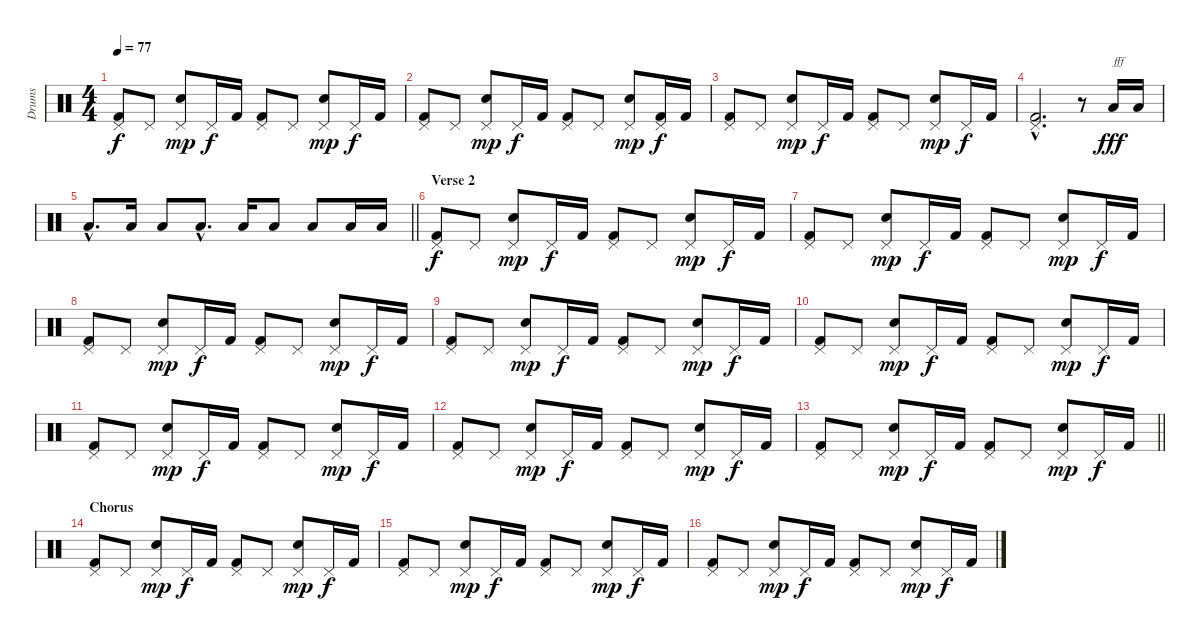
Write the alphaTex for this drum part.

\track ("Drums" "Drums") {instrument percussion}
\staff {score}
\articulation defaults
\ts (4 4)
\tempo 77
\clef neutral
\ks c
("Pedal Hi-Hat (hit)" "Kick (hit) 2").8{dy f} "Pedal Hi-Hat (hit)".8 ("Pedal Hi-Hat (hit)" "Snare (hit) 2").8{dy mp} "Pedal Hi-Hat (hit)".16{dy f} "Kick (hit) 2".16 ("Pedal Hi-Hat (hit)" "Kick (hit) 2").8 "Pedal Hi-Hat (hit)".8 ("Pedal Hi-Hat (hit)" "Snare (hit) 2").8{dy mp} "Pedal Hi-Hat (hit)".16{dy f} "Kick (hit) 2".16 |
("Pedal Hi-Hat (hit)" "Kick (hit) 2").8 "Pedal Hi-Hat (hit)".8 ("Pedal Hi-Hat (hit)" "Snare (hit) 2").8{dy mp} "Pedal Hi-Hat (hit)".16{dy f} "Kick (hit) 2".16 ("Pedal Hi-Hat (hit)" "Kick (hit) 2").8 "Pedal Hi-Hat (hit)".8 ("Pedal Hi-Hat (hit)" "Snare (hit) 2").8{dy mp} ("Pedal Hi-Hat (hit)" "Kick (hit) 2").16{dy f} "Kick (hit) 2".16 |
("Pedal Hi-Hat (hit)" "Kick (hit) 2").8 "Pedal Hi-Hat (hit)".8 ("Pedal Hi-Hat (hit)" "Snare (hit) 2").8{dy mp} "Pedal Hi-Hat (hit)".16{dy f} "Kick (hit) 2".16 ("Pedal Hi-Hat (hit)" "Kick (hit) 2").8 "Pedal Hi-Hat (hit)".8 ("Pedal Hi-Hat (hit)" "Snare (hit) 2").8{dy mp} "Pedal Hi-Hat (hit)".16{dy f} "Kick (hit) 2".16 |
("Pedal Hi-Hat (hit)"{hac} "Kick (hit) 2"{hac}).2{d} r.8 "Low Floor Tom (hit)".16{txt "fff" dy fff volume 16} "Low Floor Tom (hit)".16 |
\barLineRight lightlight "Low Tom (hit)"{hac}.8{d} "Low Floor Tom (hit)".16 "Low Tom (hit)".8 "Low Floor Tom (hit)"{hac}.8{d} "Low Floor Tom (hit)".16 "Low Tom (hit)".8 "Low Floor Tom (hit)".8 "Low Floor Tom (hit)".16 "Low Floor Tom (hit)".16
|
\section ("" "Verse 2")
("Pedal Hi-Hat (hit)" "Kick (hit) 2").8{dy f} "Pedal Hi-Hat (hit)".8 ("Pedal Hi-Hat (hit)" "Snare (hit) 2").8{dy mp} "Pedal Hi-Hat (hit)".16{dy f} "Kick (hit) 2".16 ("Pedal Hi-Hat (hit)" "Kick (hit) 2").8 "Pedal Hi-Hat (hit)".8 ("Pedal Hi-Hat (hit)" "Snare (hit) 2").8{dy mp} "Pedal Hi-Hat (hit)".16{dy f} "Kick (hit) 2".16 |
("Pedal Hi-Hat (hit)" "Kick (hit) 2").8 "Pedal Hi-Hat (hit)".8 ("Pedal Hi-Hat (hit)" "Snare (hit) 2").8{dy mp} "Pedal Hi-Hat (hit)".16{dy f} "Kick (hit) 2".16 ("Pedal Hi-Hat (hit)" "Kick (hit) 2").8 "Pedal Hi-Hat (hit)".8 ("Pedal Hi-Hat (hit)" "Snare (hit) 2").8{dy mp} "Pedal Hi-Hat (hit)".16{dy f} "Kick (hit) 2".16 |
("Pedal Hi-Hat (hit)" "Kick (hit) 2").8 "Pedal Hi-Hat (hit)".8 ("Pedal Hi-Hat (hit)" "Snare (hit) 2").8{dy mp} "Pedal Hi-Hat (hit)".16{dy f} "Kick (hit) 2".16 ("Pedal Hi-Hat (hit)" "Kick (hit) 2").8 "Pedal Hi-Hat (hit)".8 ("Pedal Hi-Hat (hit)" "Snare (hit) 2").8{dy mp} "Pedal Hi-Hat (hit)".16{dy f} "Kick (hit) 2".16 |
("Pedal Hi-Hat (hit)" "Kick (hit) 2").8 "Pedal Hi-Hat (hit)".8 ("Pedal Hi-Hat (hit)" "Snare (hit) 2").8{dy mp} "Pedal Hi-Hat (hit)".16{dy f} "Kick (hit) 2".16 ("Pedal Hi-Hat (hit)" "Kick (hit) 2").8 "Pedal Hi-Hat (hit)".8 ("Pedal Hi-Hat (hit)" "Snare (hit) 2").8{dy mp} "Pedal Hi-Hat (hit)".16{dy f} "Kick (hit) 2".16 |
("Pedal Hi-Hat (hit)" "Kick (hit) 2").8 "Pedal Hi-Hat (hit)".8 ("Pedal Hi-Hat (hit)" "Snare (hit) 2").8{dy mp} "Pedal Hi-Hat (hit)".16{dy f} "Kick (hit) 2".16 ("Pedal Hi-Hat (hit)" "Kick (hit) 2").8 "Pedal Hi-Hat (hit)".8 ("Pedal Hi-Hat (hit)" "Snare (hit) 2").8{dy mp} "Pedal Hi-Hat (hit)".16{dy f} "Kick (hit) 2".16 |
("Pedal Hi-Hat (hit)" "Kick (hit) 2").8 "Pedal Hi-Hat (hit)".8 ("Pedal Hi-Hat (hit)" "Snare (hit) 2").8{dy mp} "Pedal Hi-Hat (hit)".16{dy f} "Kick (hit) 2".16 ("Pedal Hi-Hat (hit)" "Kick (hit) 2").8 "Pedal Hi-Hat (hit)".8 ("Pedal Hi-Hat (hit)" "Snare (hit) 2").8{dy mp} "Pedal Hi-Hat (hit)".16{dy f} "Kick (hit) 2".16 |
("Pedal Hi-Hat (hit)" "Kick (hit) 2").8 "Pedal Hi-Hat (hit)".8 ("Pedal Hi-Hat (hit)" "Snare (hit) 2").8{dy mp} "Pedal Hi-Hat (hit)".16{dy f} "Kick (hit) 2".16 ("Pedal Hi-Hat (hit)" "Kick (hit) 2").8 "Pedal Hi-Hat (hit)".8 ("Pedal Hi-Hat (hit)" "Snare (hit) 2").8{dy mp} "Pedal Hi-Hat (hit)".16{dy f} "Kick (hit) 2".16 |
\barLineRight lightlight
("Pedal Hi-Hat (hit)" "Kick (hit) 2").8 "Pedal Hi-Hat (hit)".8 ("Pedal Hi-Hat (hit)" "Snare (hit) 2").8{dy mp} "Pedal Hi-Hat (hit)".16{dy f} "Kick (hit) 2".16 ("Pedal Hi-Hat (hit)" "Kick (hit) 2").8 "Pedal Hi-Hat (hit)".8 ("Pedal Hi-Hat (hit)" "Snare (hit) 2").8{dy mp} "Pedal Hi-Hat (hit)".16{dy f} "Kick (hit) 2".16 |
\section ("" "Chorus")
("Pedal Hi-Hat (hit)" "Kick (hit) 2").8 "Pedal Hi-Hat (hit)".8 ("Pedal Hi-Hat (hit)" "Snare (hit) 2").8{dy mp} "Pedal Hi-Hat (hit)".16{dy f} "Kick (hit) 2".16 ("Pedal Hi-Hat (hit)" "Kick (hit) 2").8 "Pedal Hi-Hat (hit)".8 ("Pedal Hi-Hat (hit)" "Snare (hit) 2").8{dy mp} "Pedal Hi-Hat (hit)".16{dy f} "Kick (hit) 2".16 |
("Pedal Hi-Hat (hit)" "Kick (hit) 2").8 "Pedal Hi-Hat (hit)".8 ("Pedal Hi-Hat (hit)" "Snare (hit) 2").8{dy mp} "Pedal Hi-Hat (hit)".16{dy f} "Kick (hit) 2".16 ("Pedal Hi-Hat (hit)" "Kick (hit) 2").8 "Pedal Hi-Hat (hit)".8 ("Pedal Hi-Hat (hit)" "Snare (hit) 2").8{dy mp} "Pedal Hi-Hat (hit)".16{dy f} "Kick (hit) 2".16 |
("Pedal Hi-Hat (hit)" "Kick (hit) 2").8 "Pedal Hi-Hat (hit)".8 ("Pedal Hi-Hat (hit)" "Snare (hit) 2").8{dy mp} "Pedal Hi-Hat (hit)".16{dy f} "Kick (hit) 2".16 ("Pedal Hi-Hat (hit)" "Kick (hit) 2").8 "Pedal Hi-Hat (hit)".8 ("Pedal Hi-Hat (hit)" "Snare (hit) 2").8{dy mp} "Pedal Hi-Hat (hit)".16{dy f} "Kick (hit) 2".16
